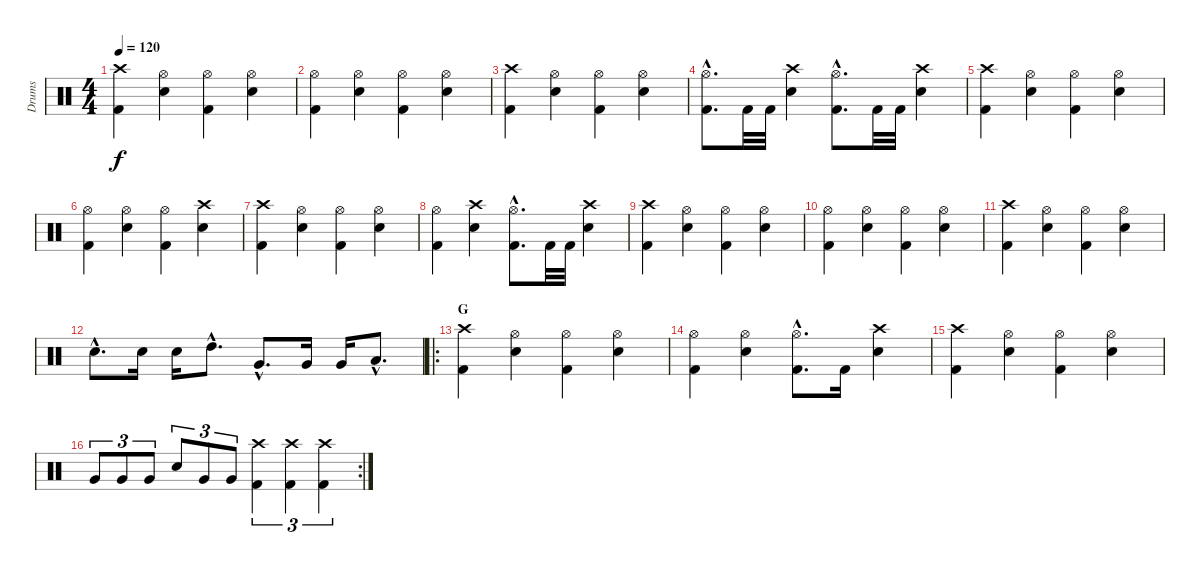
\track ("Drums" "Drums") {instrument percussion}
\staff {score}
\articulation defaults
\ts (4 4)
\tempo 120
\clef neutral
\ks c
("Crash high (hit)" "Kick (hit) 2").4{dy f} ("Hi-Hat (open)" "Electric Snare (hit)").4 ("Hi-Hat (open)" "Kick (hit) 2").4 ("Hi-Hat (open)" "Electric Snare (hit)").4 |
("Hi-Hat (open)" "Kick (hit) 2").4 ("Hi-Hat (open)" "Electric Snare (hit)").4 ("Hi-Hat (open)" "Kick (hit) 2").4 ("Hi-Hat (open)" "Electric Snare (hit)").4 |
("Crash high (hit)" "Kick (hit) 2").4 ("Hi-Hat (open)" "Electric Snare (hit)").4 ("Hi-Hat (open)" "Kick (hit) 2").4 ("Hi-Hat (open)" "Electric Snare (hit)").4 |
("Hi-Hat (open)"{hac} "Kick (hit) 2"{hac}).8{d} "Kick (hit) 2".32 "Kick (hit) 2".32 ("Crash high (hit)" "Electric Snare (hit)").4 ("Hi-Hat (open)"{hac} "Kick (hit) 2"{hac}).8{d} "Kick (hit) 2".32 "Kick (hit) 2".32 ("Crash high (hit)" "Electric Snare (hit)").4 |
("Crash high (hit)" "Kick (hit) 2").4 ("Hi-Hat (open)" "Electric Snare (hit)").4 ("Hi-Hat (open)" "Kick (hit) 2").4 ("Hi-Hat (open)" "Electric Snare (hit)").4 |
("Hi-Hat (open)" "Kick (hit) 2").4 ("Hi-Hat (open)" "Electric Snare (hit)").4 ("Hi-Hat (open)" "Kick (hit) 2").4 ("Crash high (hit)" "Electric Snare (hit)").4 |
("Crash high (hit)" "Kick (hit) 2").4 ("Hi-Hat (open)" "Electric Snare (hit)").4 ("Hi-Hat (open)" "Kick (hit) 2").4 ("Hi-Hat (open)" "Electric Snare (hit)").4 |
("Hi-Hat (open)" "Kick (hit) 2").4 ("Crash high (hit)" "Electric Snare (hit)").4 ("Hi-Hat (open)"{hac} "Kick (hit) 2"{hac}).8{d} "Kick (hit) 2".32 "Kick (hit) 2".32 ("Crash high (hit)" "Electric Snare (hit)").4 |
("Crash high (hit)" "Kick (hit) 2").4 ("Hi-Hat (open)" "Electric Snare (hit)").4 ("Hi-Hat (open)" "Kick (hit) 2").4 ("Hi-Hat (open)" "Electric Snare (hit)").4 |
("Hi-Hat (open)" "Kick (hit) 2").4 ("Hi-Hat (open)" "Electric Snare (hit)").4 ("Hi-Hat (open)" "Kick (hit) 2").4 ("Hi-Hat (open)" "Electric Snare (hit)").4 |
("Crash high (hit)" "Kick (hit) 2").4 ("Hi-Hat (open)" "Electric Snare (hit)").4 ("Hi-Hat (open)" "Kick (hit) 2").4 ("Hi-Hat (open)" "Electric Snare (hit)").4 |
"Electric Snare (hit)"{hac}.8{d} "Electric Snare (hit)".16 "Electric Snare (hit)".16 "High Tom (hit)"{hac}.8{d} "Very Low Tom (hit)"{hac}.8{d} "Very Low Tom (hit)".16 "Very Low Tom (hit)".16 "Low Floor Tom (hit)"{hac}.8{d} |
\ro
\section ("" "G")
("Crash high (hit)" "Kick (hit) 2").4 ("Hi-Hat (open)" "Electric Snare (hit)").4 ("Hi-Hat (open)" "Kick (hit) 2").4 ("Hi-Hat (open)" "Electric Snare (hit)").4 |
("Hi-Hat (open)" "Kick (hit) 2").4 ("Hi-Hat (open)" "Electric Snare (hit)").4 ("Hi-Hat (open)"{hac} "Kick (hit) 2"{hac}).8{d} "Kick (hit) 2".16 ("Crash high (hit)" "Electric Snare (hit)").4 |
("Crash high (hit)" "Kick (hit) 2").4 ("Hi-Hat (open)" "Electric Snare (hit)").4 ("Hi-Hat (open)" "Kick (hit) 2").4 ("Hi-Hat (open)" "Electric Snare (hit)").4 |
\rc 2 "Very Low Tom (hit)".8{tu (3 2)} "Very Low Tom (hit)".8{tu (3 2)} "Very Low Tom (hit)".8{tu (3 2)} "Electric Snare (hit)".8{tu (3 2)} "Very Low Tom (hit)".8{tu (3 2)} "Very Low Tom (hit)".8{tu (3 2)}
("Crash high (hit)" "Kick (hit) 2").4{tu (3 2)} ("Crash high (hit)" "Kick (hit) 2").4{tu (3 2)} ("Crash high (hit)" "Kick (hit) 2").4{tu (3 2)}
